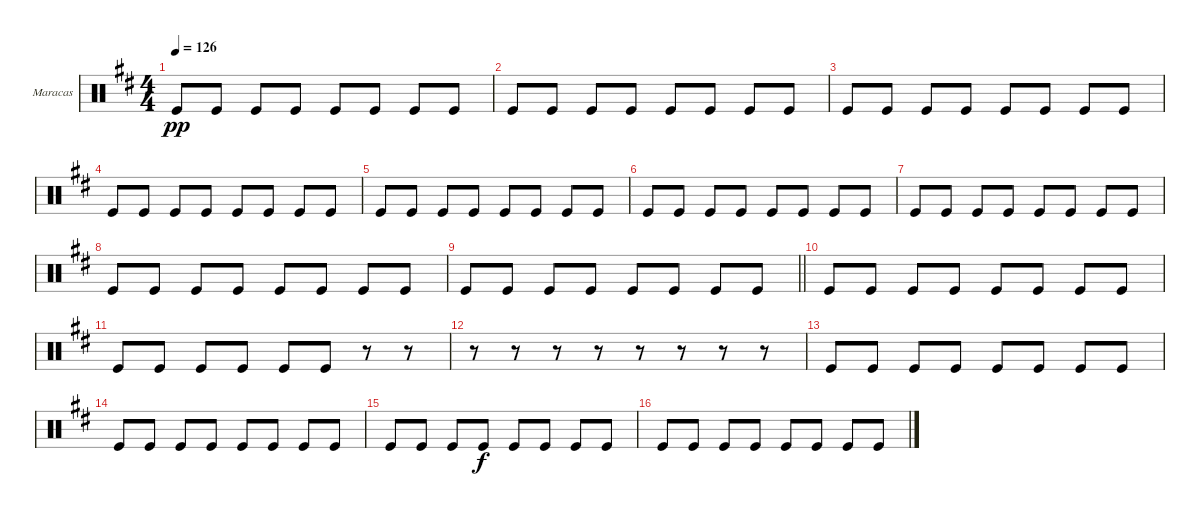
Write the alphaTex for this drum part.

\bracketExtendMode groupsimilarinstruments
\firstSystemTrackNameOrientation horizontal
\otherSystemsTrackNameOrientation horizontal
\track ("Maracas" "Maracas") {instrument percussion}
\staff {score}
\articulation defaults
\ts (4 4)
\tempo 126
\clef neutral
\ks d "Kick (hit)".8{dy pp} "Kick (hit)".8 "Kick (hit)".8 "Kick (hit)".8 "Kick (hit)".8 "Kick (hit)".8 "Kick (hit)".8 "Kick (hit)".8
|
"Kick (hit)".8 "Kick (hit)".8 "Kick (hit)".8 "Kick (hit)".8 "Kick (hit)".8 "Kick (hit)".8 "Kick (hit)".8 "Kick (hit)".8 |
\scale
0.3829 "Kick (hit)".8 "Kick (hit)".8 "Kick (hit)".8 "Kick (hit)".8 "Kick (hit)".8 "Kick (hit)".8 "Kick (hit)".8 "Kick (hit)".8 |
\scale
0.294983 "Kick (hit)".8 "Kick (hit)".8 "Kick (hit)".8 "Kick (hit)".8 "Kick (hit)".8 "Kick (hit)".8 "Kick (hit)".8 "Kick (hit)".8 |
\scale
0.321899 "Kick (hit)".8 "Kick (hit)".8 "Kick (hit)".8 "Kick (hit)".8 "Kick (hit)".8 "Kick (hit)".8 "Kick (hit)".8 "Kick (hit)".8 |
\scale
0.634111 "Kick (hit)".8 "Kick (hit)".8 "Kick (hit)".8 "Kick (hit)".8 "Kick (hit)".8 "Kick (hit)".8 "Kick (hit)".8 "Kick (hit)".8 |
\scale
0.365973 "Kick (hit)".8 "Kick (hit)".8 "Kick (hit)".8 "Kick (hit)".8 "Kick (hit)".8 "Kick (hit)".8 "Kick (hit)".8 "Kick (hit)".8 |
\scale
0.364305 "Kick (hit)".8 "Kick (hit)".8 "Kick (hit)".8 "Kick (hit)".8 "Kick (hit)".8 "Kick (hit)".8 "Kick (hit)".8 "Kick (hit)".8 |
\scale
0.361541
\barLineRight lightlight "Kick (hit)".8 "Kick (hit)".8 "Kick (hit)".8 "Kick (hit)".8 "Kick (hit)".8 "Kick (hit)".8 "Kick (hit)".8 "Kick (hit)".8
|
\scale
0.274306 "Kick (hit)".8 "Kick (hit)".8 "Kick (hit)".8 "Kick (hit)".8 "Kick (hit)".8 "Kick (hit)".8 "Kick (hit)".8 "Kick (hit)".8 |
"Kick (hit)".8 "Kick (hit)".8 "Kick (hit)".8 "Kick (hit)".8 "Kick (hit)".8 "Kick (hit)".8 r.8 r.8 |
r.8 r.8 r.8 r.8 r.8 r.8 r.8 r.8 |
"Kick (hit)".8 "Kick (hit)".8 "Kick (hit)".8 "Kick (hit)".8 "Kick (hit)".8 "Kick (hit)".8 "Kick (hit)".8 "Kick (hit)".8 |
"Kick (hit)".8 "Kick (hit)".8 "Kick (hit)".8 "Kick (hit)".8 "Kick (hit)".8 "Kick (hit)".8 "Kick (hit)".8 "Kick (hit)".8 |
"Kick (hit)".8 "Kick (hit)".8 "Kick (hit)".8 "Kick (hit)".8{dy f} "Kick (hit)".8 "Kick (hit)".8 "Kick (hit)".8 "Kick (hit)".8 |
"Kick (hit)".8 "Kick (hit)".8 "Kick (hit)".8 "Kick (hit)".8 "Kick (hit)".8 "Kick (hit)".8 "Kick (hit)".8 "Kick (hit)".8
